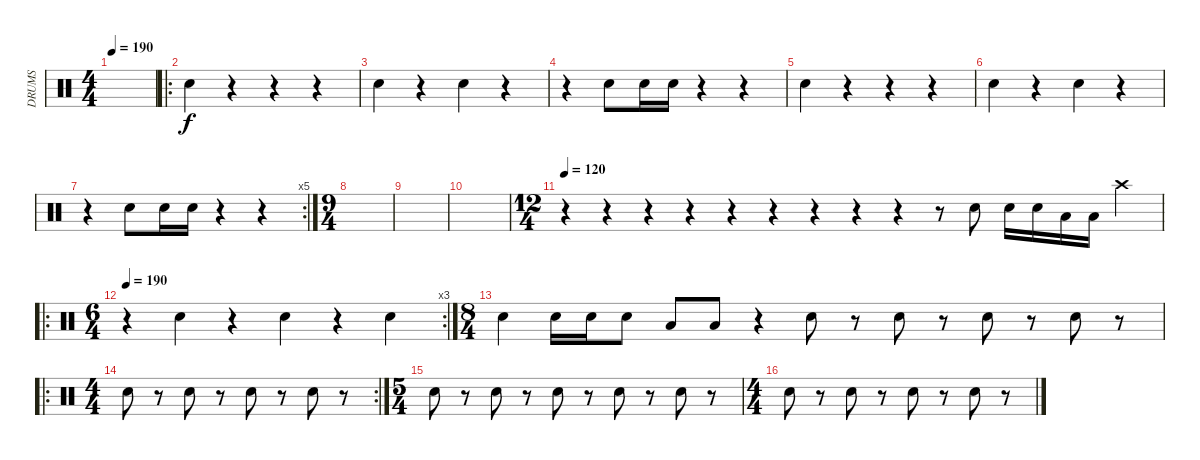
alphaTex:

\track ("DRUMS" "DRUMS") {instrument percussion}
\staff {score}
\articulation defaults
\ts (4 4)
\tempo 190
\clef neutral
\ks c
|
\ro "Electric Snare (hit)".4
r.4 r.4 r.4 |
"Electric Snare (hit)".4 r.4 "Electric Snare (hit)".4 r.4 |
r.4 "Electric Snare (hit)".8 "Electric Snare (hit)".16 "Electric Snare (hit)".16 r.4 r.4 |
"Electric Snare (hit)".4 r.4 r.4 r.4 |
"Electric Snare (hit)".4 r.4 "Electric Snare (hit)".4 r.4 |
\rc 5
r.4 "Electric Snare (hit)".8 "Electric Snare (hit)".16 "Electric Snare (hit)".16 r.4 r.4 |
\ts (9 4)
|
|
|
\ts (12 4)
\tempo 120
r.4 r.4 r.4 r.4 r.4 r.4 r.4 r.4 r.4 r.8 "Electric Snare (hit)".8 "Electric Snare (hit)".16 "Electric Snare (hit)".16 "Low Tom (hit)".16 "Low Tom (hit)".16 "Crash high (hit)".4 |
\ro
\rc 3
\ts (6 4)
\tempo 190
r.4 "Electric Snare (hit)".4 r.4 "Electric Snare (hit)".4 r.4 "Electric Snare (hit)".4 |
\ts (8 4)
"Electric Snare (hit)".4 "Electric Snare (hit)".16 "Electric Snare (hit)".16 "Electric Snare (hit)".8 "Low Tom (hit)".8 "Low Tom (hit)".8 r.4 "Electric Snare (hit)".8 r.8 "Electric Snare (hit)".8 r.8 "Electric Snare (hit)".8 r.8 "Electric Snare (hit)".8 r.8 |
\ro
\rc 2
\ts (4 4)
"Electric Snare (hit)".8 r.8 "Electric Snare (hit)".8 r.8 "Electric Snare (hit)".8 r.8 "Electric Snare (hit)".8 r.8 |
\ts (5 4)
"Electric Snare (hit)".8 r.8 "Electric Snare (hit)".8 r.8 "Electric Snare (hit)".8 r.8 "Electric Snare (hit)".8 r.8 "Electric Snare (hit)".8 r.8 |
\ts (4 4)
"Electric Snare (hit)".8 r.8 "Electric Snare (hit)".8 r.8 "Electric Snare (hit)".8 r.8 "Electric Snare (hit)".8 r.8
